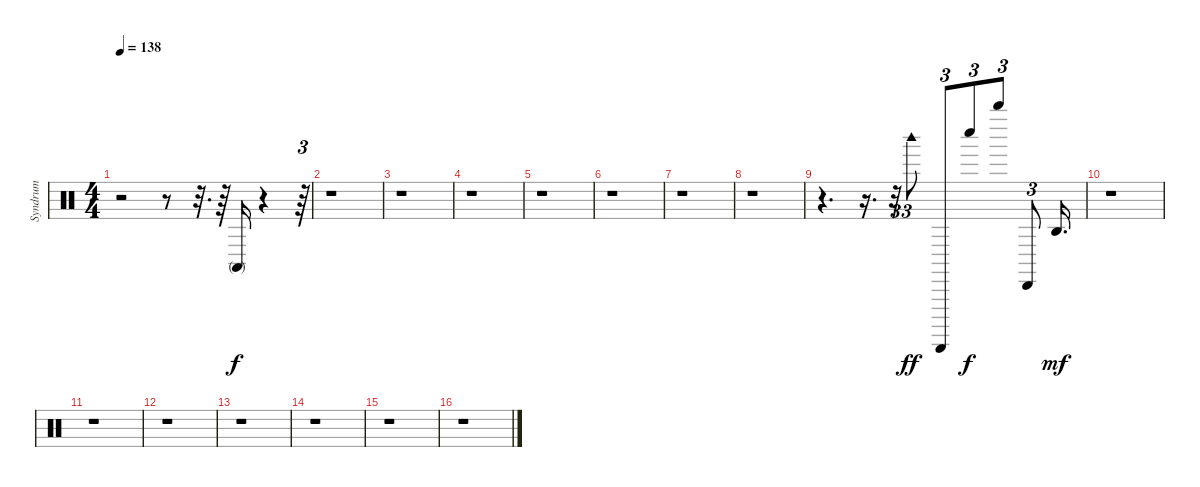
\track ("Syndrum" "Syndrum") {instrument percussion}
\staff {score}
\articulation defaults
\ts (4 4)
\tempo 138
\clef neutral
\ks c
r.2{dy f} r.8 r.32{d} r.64 "Conga high (mute)".16 r.4 r.64{tu (3 2)} |
r.1 |
r.1 |
r.1 |
r.1 |
r.1 |
r.1 |
r.1 |
r.4{d} r.16{d} r.32{tu (3 2)} "Woodblock high (hit)".8{tu (3 2) dy ff} "Guiro (scrap-return)".8{tu (3 2)} "Whistle low (hit)".8{tu (3 2) dy f} "Whistle high (hit)".8{tu (3 2)} "Cabasa (hit)".8{tu (3 2)} "Agogo high (hit)".16{d dy mf} |
r.1 |
r.1 |
r.1 |
r.1 |
r.1 |
r.1 |
r.1
